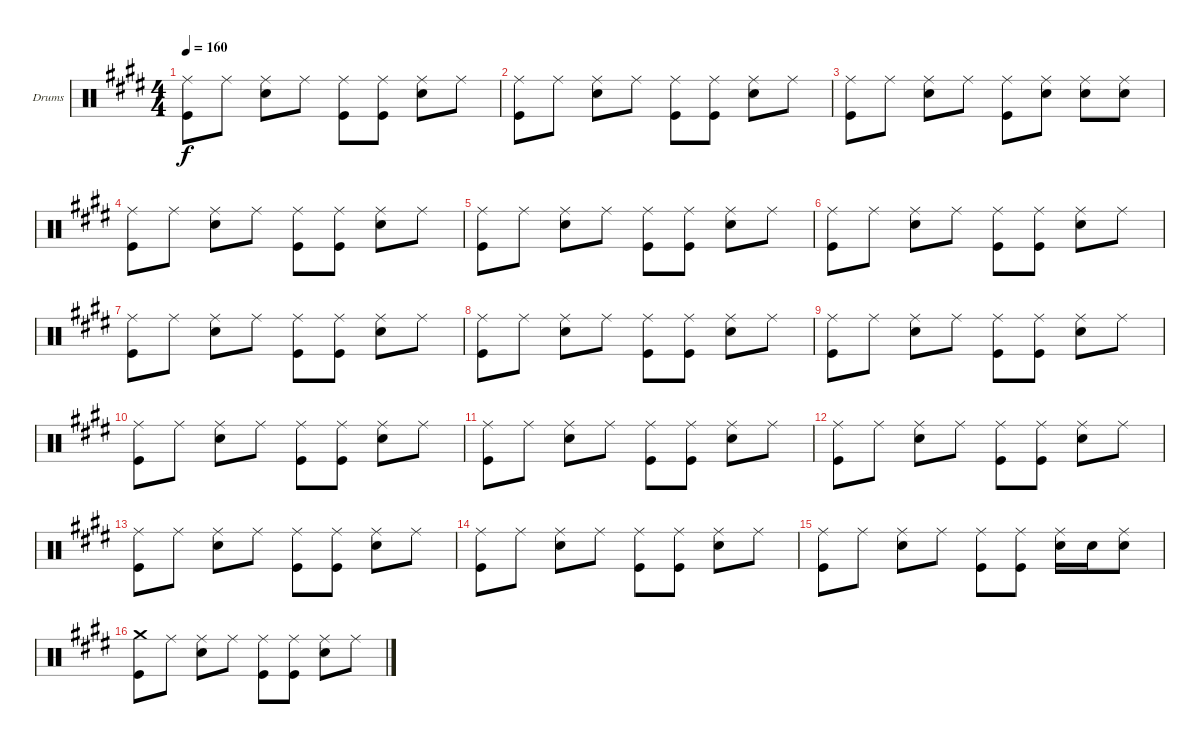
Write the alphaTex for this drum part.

\defaultSystemsLayout 4
\bracketExtendMode groupsimilarinstruments
\firstSystemTrackNameOrientation horizontal
\otherSystemsTrackNameOrientation horizontal
\track ("Drumkit" "Drums") {instrument percussion}
\staff {score}
\articulation defaults
\ts (4 4)
\tempo 160
\clef neutral
\scale
0.333333
\ks e
("Kick (hit)" "Ride (middle)").8{dy f} "Ride (middle)".8 ("Snare (hit) 2" "Ride (middle)").8 "Ride (middle)".8 ("Kick (hit)" "Ride (middle)").8 ("Kick (hit)" "Ride (middle)").8 ("Ride (middle)" "Snare (hit) 2").8 "Ride (middle)".8 |
\scale
0.333333 ("Ride (middle)" "Kick (hit)").8 "Ride (middle)".8 ("Ride (middle)" "Snare (hit) 2").8 "Ride (middle)".8 ("Ride (middle)" "Kick (hit)").8 ("Ride (middle)" "Kick (hit)").8 ("Ride (middle)" "Snare (hit) 2").8 "Ride (middle)".8 |
\scale
0.333333 ("Ride (middle)" "Kick (hit)").8 "Ride (middle)".8 ("Ride (middle)" "Snare (hit) 2").8 "Ride (middle)".8 ("Ride (middle)" "Kick (hit)").8 ("Ride (middle)" "Snare (hit) 2").8 ("Ride (middle)" "Snare (hit) 2").8 ("Ride (middle)" "Snare (hit) 2").8 |
\scale
0.333333 ("Ride (middle)" "Kick (hit)").8 "Ride (middle)".8 ("Ride (middle)" "Snare (hit) 2").8 "Ride (middle)".8 ("Ride (middle)" "Kick (hit)").8 ("Ride (middle)" "Kick (hit)").8 ("Ride (middle)" "Snare (hit) 2").8 "Ride (middle)".8 |
\scale
0.333333 ("Ride (middle)" "Kick (hit)").8 "Ride (middle)".8 ("Ride (middle)" "Snare (hit) 2").8 "Ride (middle)".8 ("Ride (middle)" "Kick (hit)").8 ("Ride (middle)" "Kick (hit)").8 ("Ride (middle)" "Snare (hit) 2").8 "Ride (middle)".8 |
\scale
0.333333 ("Ride (middle)" "Kick (hit)").8 "Ride (middle)".8 ("Ride (middle)" "Snare (hit) 2").8 "Ride (middle)".8 ("Ride (middle)" "Kick (hit)").8 ("Ride (middle)" "Kick (hit)").8 ("Ride (middle)" "Snare (hit) 2").8 "Ride (middle)".8 |
\scale
0.333333 ("Ride (middle)" "Kick (hit)").8 "Ride (middle)".8 ("Ride (middle)" "Snare (hit) 2").8 "Ride (middle)".8 ("Ride (middle)" "Kick (hit)").8 ("Ride (middle)" "Kick (hit)").8 ("Ride (middle)" "Snare (hit) 2").8 "Ride (middle)".8 |
\scale
0.333333 ("Ride (middle)" "Kick (hit)").8 "Ride (middle)".8 ("Ride (middle)" "Snare (hit) 2").8 "Ride (middle)".8 ("Ride (middle)" "Kick (hit)").8 ("Ride (middle)" "Kick (hit)").8 ("Ride (middle)" "Snare (hit) 2").8 "Ride (middle)".8 |
\scale
0.333333 ("Ride (middle)" "Kick (hit)").8 "Ride (middle)".8 ("Ride (middle)" "Snare (hit) 2").8 "Ride (middle)".8 ("Ride (middle)" "Kick (hit)").8 ("Ride (middle)" "Kick (hit)").8 ("Ride (middle)" "Snare (hit) 2").8 "Ride (middle)".8 |
\scale
0.333333 ("Ride (middle)" "Kick (hit)").8 "Ride (middle)".8 ("Ride (middle)" "Snare (hit) 2").8 "Ride (middle)".8 ("Ride (middle)" "Kick (hit)").8 ("Ride (middle)" "Kick (hit)").8 ("Ride (middle)" "Snare (hit) 2").8 "Ride (middle)".8 |
\scale
0.333333 ("Ride (middle)" "Kick (hit)").8 "Ride (middle)".8 ("Ride (middle)" "Snare (hit) 2").8 "Ride (middle)".8 ("Ride (middle)" "Kick (hit)").8 ("Ride (middle)" "Kick (hit)").8 ("Ride (middle)" "Snare (hit) 2").8 "Ride (middle)".8 |
\scale
0.333333 ("Ride (middle)" "Kick (hit)").8 "Ride (middle)".8 ("Ride (middle)" "Snare (hit) 2").8 "Ride (middle)".8 ("Ride (middle)" "Kick (hit)").8 ("Ride (middle)" "Kick (hit)").8 ("Ride (middle)" "Snare (hit) 2").8 "Ride (middle)".8 |
\scale
0.333333 ("Ride (middle)" "Kick (hit)").8 "Ride (middle)".8 ("Ride (middle)" "Snare (hit) 2").8 "Ride (middle)".8 ("Ride (middle)" "Kick (hit)").8 ("Ride (middle)" "Kick (hit)").8 ("Ride (middle)" "Snare (hit) 2").8 "Ride (middle)".8 |
\scale
0.333333 ("Ride (middle)" "Kick (hit)").8 "Ride (middle)".8 ("Ride (middle)" "Snare (hit) 2").8 "Ride (middle)".8 ("Ride (middle)" "Kick (hit)").8 ("Ride (middle)" "Kick (hit)").8 ("Ride (middle)" "Snare (hit) 2").8 "Ride (middle)".8 |
\scale
0.333333 ("Ride (middle)" "Kick (hit)").8 "Ride (middle)".8 ("Ride (middle)" "Snare (hit) 2").8 "Ride (middle)".8 ("Ride (middle)" "Kick (hit)").8 ("Ride (middle)" "Kick (hit)").8 ("Ride (middle)" "Snare (hit) 2").16 "Snare (hit) 2".16 ("Ride (middle)" "Snare (hit) 2").8 |
\scale
0.333333 ("Crash medium (hit)" "Kick (hit)").8 "Ride (middle)".8 ("Ride (middle)" "Snare (hit) 2").8 "Ride (middle)".8 ("Ride (middle)" "Kick (hit)").8 ("Ride (middle)" "Kick (hit)").8 ("Ride (middle)" "Snare (hit) 2").8 "Ride (middle)".8
